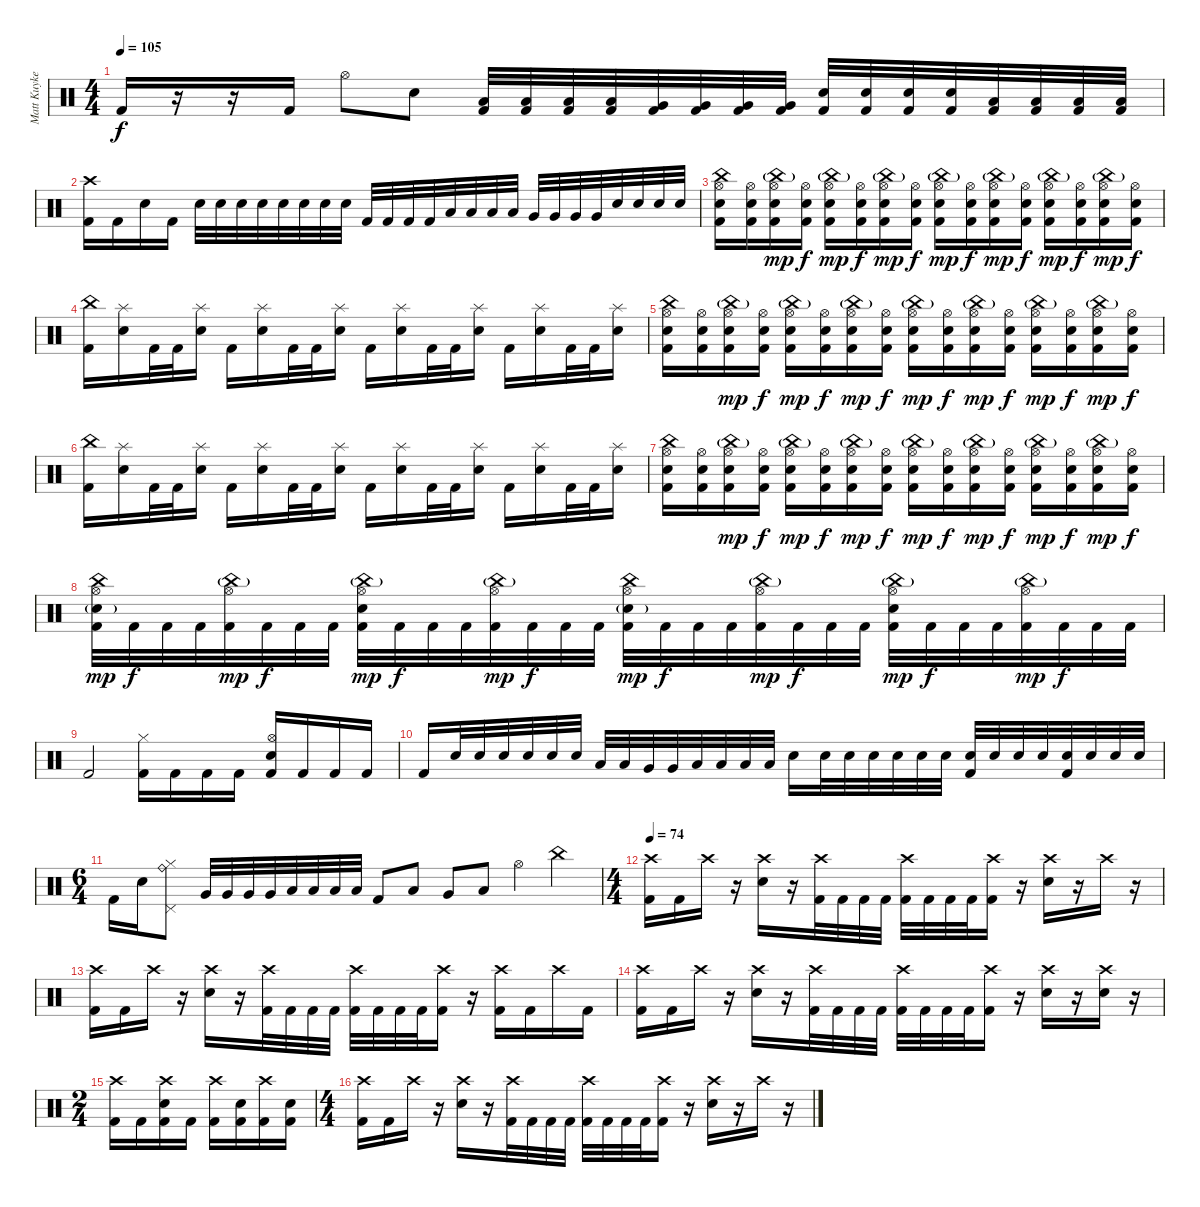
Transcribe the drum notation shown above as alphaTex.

\track ("Matt Kuykendall (Drums)" "Matt Kuyke") {instrument percussion}
\staff {score}
\articulation defaults
\ts (4 4)
\tempo 105
\clef neutral
\ks c "Kick (hit) 2".16{dy f}
r.16 r.16 "Kick (hit) 2".16 "Hi-Hat (open)".8 "Snare (hit) 2".8 ("Low Floor Tom (hit)" "Kick (hit) 2").32 ("Low Floor Tom (hit)" "Kick (hit) 2").32 ("Low Floor Tom (hit)" "Kick (hit) 2").32 ("Low Floor Tom (hit)" "Kick (hit) 2").32 ("Very Low Tom (hit)" "Kick (hit) 2").32 ("Very Low Tom (hit)" "Kick (hit) 2").32 ("Very Low Tom (hit)" "Kick (hit) 2").32 ("Very Low Tom (hit)" "Kick (hit) 2").32 ("Snare (hit) 2" "Kick (hit) 2").32 ("Snare (hit) 2" "Kick (hit) 2").32 ("Snare (hit) 2" "Kick (hit) 2").32 ("Snare (hit) 2" "Kick (hit) 2").32 ("Low Floor Tom (hit)" "Kick (hit) 2").32 ("Low Floor Tom (hit)" "Kick (hit) 2").32 ("Low Floor Tom (hit)" "Kick (hit) 2").32 ("Low Floor Tom (hit)" "Kick (hit) 2").32 |
("Crash high (hit)" "Kick (hit) 2").16 "Kick (hit) 2".16 "Snare (hit) 2".16 "Kick (hit) 2".16 "Snare (hit) 2".32 "Snare (hit) 2".32 "Snare (hit) 2".32 "Snare (hit) 2".32 "Snare (hit) 2".32 "Snare (hit) 2".32 "Snare (hit) 2".32 "Snare (hit) 2".32 "Kick (hit) 2".32 "Kick (hit) 2".32 "Kick (hit) 2".32 "Kick (hit) 2".32 "Low Floor Tom (hit)".32 "Low Floor Tom (hit)".32 "Low Floor Tom (hit)".32 "Low Floor Tom (hit)".32 "Very Low Tom (hit)".32 "Very Low Tom (hit)".32 "Very Low Tom (hit)".32 "Very Low Tom (hit)".32 "Snare (hit) 2".32 "Snare (hit) 2".32 "Snare (hit) 2".32 "Snare (hit) 2".32 |
("China (hit)" "Hi-Hat (open)" "Snare (hit) 2" "Kick (hit) 2").16 ("Hi-Hat (open)" "Snare (hit) 2" "Kick (hit) 2").16 ("China (hit)"{g} "Hi-Hat (open)" "Snare (hit) 2" "Kick (hit) 2").16{dy mp} ("Hi-Hat (open)" "Snare (hit) 2" "Kick (hit) 2").16{dy f} ("China (hit)"{g} "Hi-Hat (open)" "Snare (hit) 2" "Kick (hit) 2").16{dy mp} ("Hi-Hat (open)" "Snare (hit) 2" "Kick (hit) 2").16{dy f} ("China (hit)"{g} "Hi-Hat (open)" "Snare (hit) 2" "Kick (hit) 2").16{dy mp} ("Hi-Hat (open)" "Snare (hit) 2" "Kick (hit) 2").16{dy f} ("China (hit)"{g} "Hi-Hat (open)" "Snare (hit) 2" "Kick (hit) 2").16{dy mp} ("Hi-Hat (open)" "Snare (hit) 2" "Kick (hit) 2").16{dy f} ("China (hit)"{g} "Hi-Hat (open)" "Snare (hit) 2" "Kick (hit) 2").16{dy mp} ("Hi-Hat (open)" "Snare (hit) 2" "Kick (hit) 2").16{dy f} ("China (hit)"{g} "Hi-Hat (open)" "Snare (hit) 2" "Kick (hit) 2").16{dy mp} ("Hi-Hat (open)" "Snare (hit) 2" "Kick (hit) 2").16{dy f} ("China (hit)"{g} "Hi-Hat (open)" "Snare (hit) 2" "Kick (hit) 2").16{dy mp} ("Hi-Hat (open)" "Snare (hit) 2" "Kick (hit) 2").16{dy f} |
("China (hit)" "Kick (hit) 2").16 ("Splash (hit)" "Snare (hit) 2").16 "Kick (hit) 2".32 "Kick (hit) 2".32 ("Splash (hit)" "Snare (hit) 2").16 "Kick (hit) 2".16 ("Splash (hit)" "Snare (hit) 2").16 "Kick (hit) 2".32 "Kick (hit) 2".32 ("Splash (hit)" "Snare (hit) 2").16 "Kick (hit) 2".16 ("Splash (hit)" "Snare (hit) 2").16 "Kick (hit) 2".32 "Kick (hit) 2".32 ("Splash (hit)" "Snare (hit) 2").16 "Kick (hit) 2".16 ("Splash (hit)" "Snare (hit) 2").16 "Kick (hit) 2".32 "Kick (hit) 2".32 ("Splash (hit)" "Snare (hit) 2").16 |
("China (hit)" "Hi-Hat (open)" "Snare (hit) 2" "Kick (hit) 2").16 ("Hi-Hat (open)" "Snare (hit) 2" "Kick (hit) 2").16 ("China (hit)"{g} "Hi-Hat (open)" "Snare (hit) 2" "Kick (hit) 2").16{dy mp} ("Hi-Hat (open)" "Snare (hit) 2" "Kick (hit) 2").16{dy f} ("China (hit)"{g} "Hi-Hat (open)" "Snare (hit) 2" "Kick (hit) 2").16{dy mp} ("Hi-Hat (open)" "Snare (hit) 2" "Kick (hit) 2").16{dy f} ("China (hit)"{g} "Hi-Hat (open)" "Snare (hit) 2" "Kick (hit) 2").16{dy mp} ("Hi-Hat (open)" "Snare (hit) 2" "Kick (hit) 2").16{dy f} ("China (hit)"{g} "Hi-Hat (open)" "Snare (hit) 2" "Kick (hit) 2").16{dy mp} ("Hi-Hat (open)" "Snare (hit) 2" "Kick (hit) 2").16{dy f} ("China (hit)"{g} "Hi-Hat (open)" "Snare (hit) 2" "Kick (hit) 2").16{dy mp} ("Hi-Hat (open)" "Snare (hit) 2" "Kick (hit) 2").16{dy f} ("China (hit)"{g} "Hi-Hat (open)" "Snare (hit) 2" "Kick (hit) 2").16{dy mp} ("Hi-Hat (open)" "Snare (hit) 2" "Kick (hit) 2").16{dy f} ("China (hit)"{g} "Hi-Hat (open)" "Snare (hit) 2" "Kick (hit) 2").16{dy mp} ("Hi-Hat (open)" "Snare (hit) 2" "Kick (hit) 2").16{dy f} |
("China (hit)" "Kick (hit) 2").16 ("Splash (hit)" "Snare (hit) 2").16 "Kick (hit) 2".32 "Kick (hit) 2".32 ("Splash (hit)" "Snare (hit) 2").16 "Kick (hit) 2".16 ("Splash (hit)" "Snare (hit) 2").16 "Kick (hit) 2".32 "Kick (hit) 2".32 ("Splash (hit)" "Snare (hit) 2").16 "Kick (hit) 2".16 ("Splash (hit)" "Snare (hit) 2").16 "Kick (hit) 2".32 "Kick (hit) 2".32 ("Splash (hit)" "Snare (hit) 2").16 "Kick (hit) 2".16 ("Splash (hit)" "Snare (hit) 2").16 "Kick (hit) 2".32 "Kick (hit) 2".32 ("Splash (hit)" "Snare (hit) 2").16 |
("China (hit)" "Hi-Hat (open)" "Snare (hit) 2" "Kick (hit) 2").16 ("Hi-Hat (open)" "Snare (hit) 2" "Kick (hit) 2").16 ("China (hit)"{g} "Hi-Hat (open)" "Snare (hit) 2" "Kick (hit) 2").16{dy mp} ("Hi-Hat (open)" "Snare (hit) 2" "Kick (hit) 2").16{dy f} ("China (hit)"{g} "Hi-Hat (open)" "Snare (hit) 2" "Kick (hit) 2").16{dy mp} ("Hi-Hat (open)" "Snare (hit) 2" "Kick (hit) 2").16{dy f} ("China (hit)"{g} "Hi-Hat (open)" "Snare (hit) 2" "Kick (hit) 2").16{dy mp} ("Hi-Hat (open)" "Snare (hit) 2" "Kick (hit) 2").16{dy f} ("China (hit)"{g} "Hi-Hat (open)" "Snare (hit) 2" "Kick (hit) 2").16{dy mp} ("Hi-Hat (open)" "Snare (hit) 2" "Kick (hit) 2").16{dy f} ("China (hit)"{g} "Hi-Hat (open)" "Snare (hit) 2" "Kick (hit) 2").16{dy mp} ("Hi-Hat (open)" "Snare (hit) 2" "Kick (hit) 2").16{dy f} ("China (hit)"{g} "Hi-Hat (open)" "Snare (hit) 2" "Kick (hit) 2").16{dy mp} ("Hi-Hat (open)" "Snare (hit) 2" "Kick (hit) 2").16{dy f} ("China (hit)"{g} "Hi-Hat (open)" "Snare (hit) 2" "Kick (hit) 2").16{dy mp} ("Hi-Hat (open)" "Snare (hit) 2" "Kick (hit) 2").16{dy f} |
("China (hit)" "Hi-Hat (open)" "Snare (hit) 2"{g} "Kick (hit) 2").32{dy mp} "Kick (hit) 2".32{dy f} "Kick (hit) 2".32 "Kick (hit) 2".32 ("China (hit)"{g} "Hi-Hat (open)" "Kick (hit) 2").32{dy mp} "Kick (hit) 2".32{dy f} "Kick (hit) 2".32 "Kick (hit) 2".32 ("China (hit)"{g} "Hi-Hat (open)" "Snare (hit) 2" "Kick (hit) 2").32{dy mp} "Kick (hit) 2".32{dy f} "Kick (hit) 2".32 "Kick (hit) 2".32 ("China (hit)"{g} "Hi-Hat (open)" "Kick (hit) 2").32{dy mp} "Kick (hit) 2".32{dy f} "Kick (hit) 2".32 "Kick (hit) 2".32 ("China (hit)" "Hi-Hat (open)" "Snare (hit) 2"{g} "Kick (hit) 2").32{dy mp} "Kick (hit) 2".32{dy f} "Kick (hit) 2".32 "Kick (hit) 2".32 ("China (hit)"{g} "Hi-Hat (open)" "Kick (hit) 2").32{dy mp} "Kick (hit) 2".32{dy f} "Kick (hit) 2".32 "Kick (hit) 2".32 ("China (hit)"{g} "Hi-Hat (open)" "Snare (hit) 2" "Kick (hit) 2").32{dy mp} "Kick (hit) 2".32{dy f} "Kick (hit) 2".32 "Kick (hit) 2".32 ("China (hit)"{g} "Hi-Hat (open)" "Kick (hit) 2").32{dy mp} "Kick (hit) 2".32{dy f} "Kick (hit) 2".32 "Kick (hit) 2".32 |
"Kick (hit) 2".2 ("Hi-Hat (closed)" "Kick (hit) 2").16 "Kick (hit) 2".16 "Kick (hit) 2".16 "Kick (hit) 2".16 ("Hi-Hat (open)" "Snare (hit) 2" "Kick (hit) 2").16 "Kick (hit) 2".16 "Kick (hit) 2".16 "Kick (hit) 2".16 |
"Kick (hit) 2".16 "Snare (hit) 2".32 "Snare (hit) 2".32 "Snare (hit) 2".32 "Snare (hit) 2".32 "Snare (hit) 2".32 "Snare (hit) 2".32 "Low Floor Tom (hit)".32 "Low Floor Tom (hit)".32 "Very Low Tom (hit)".32 "Very Low Tom (hit)".32 "Low Floor Tom (hit)".32 "Low Floor Tom (hit)".32 "Low Floor Tom (hit)".32 "Low Floor Tom (hit)".32 "Snare (hit) 2".16 "Snare (hit) 2".32 "Snare (hit) 2".32 "Snare (hit) 2".32 "Snare (hit) 2".32 "Snare (hit) 2".32 "Snare (hit) 2".32 ("Snare (hit) 2" "Kick (hit) 2").32 "Snare (hit) 2".32 "Snare (hit) 2".32 "Snare (hit) 2".32 ("Snare (hit) 2" "Kick (hit) 2").32 "Snare (hit) 2".32 "Snare (hit) 2".32 "Snare (hit) 2".32 |
\ts (6 4)
"Kick (hit) 2".16 "Snare (hit) 2".16 ("Ride (bell)" "Hi-Hat (closed)" "Pedal Hi-Hat (hit)").8 "Very Low Tom (hit)".32 "Very Low Tom (hit)".32 "Very Low Tom (hit)".32 "Very Low Tom (hit)".32 "Low Floor Tom (hit)".32 "Low Floor Tom (hit)".32 "Low Floor Tom (hit)".32 "Low Floor Tom (hit)".32 "Kick (hit) 2".8 "Low Floor Tom (hit)".8 "Very Low Tom (hit)".8 "Low Floor Tom (hit)".8 "Hi-Hat (open)".4 "China (hit)".4 |
\ts (4 4)
\tempo 74
("Crash high (hit)" "Kick (hit) 2").16 "Kick (hit) 2".16 "Crash high (hit)".16 r.16 ("Crash high (hit)" "Snare (hit) 2").16 r.16 ("Crash high (hit)" "Kick (hit) 2").32 "Kick (hit) 2".32 "Kick (hit) 2".32 "Kick (hit) 2".32 ("Crash high (hit)" "Kick (hit) 2").32 "Kick (hit) 2".32 "Kick (hit) 2".32 "Kick (hit) 2".32 ("Crash high (hit)" "Kick (hit) 2").16 r.16 ("Crash high (hit)" "Snare (hit) 2").16 r.16 "Crash high (hit)".16 r.16 |
("Crash high (hit)" "Kick (hit) 2").16 "Kick (hit) 2".16 "Crash high (hit)".16 r.16 ("Crash high (hit)" "Snare (hit) 2").16 r.16 ("Crash high (hit)" "Kick (hit) 2").32 "Kick (hit) 2".32 "Kick (hit) 2".32 "Kick (hit) 2".32 ("Crash high (hit)" "Kick (hit) 2").32 "Kick (hit) 2".32 "Kick (hit) 2".32 "Kick (hit) 2".32 ("Crash high (hit)" "Kick (hit) 2").16 r.16 ("Crash high (hit)" "Kick (hit) 2").16 "Kick (hit) 2".16 "Crash high (hit)".16 "Kick (hit) 2".16 |
("Crash high (hit)" "Kick (hit) 2").16 "Kick (hit) 2".16 "Crash high (hit)".16 r.16 ("Crash high (hit)" "Snare (hit) 2").16 r.16 ("Crash high (hit)" "Kick (hit) 2").32 "Kick (hit) 2".32 "Kick (hit) 2".32 "Kick (hit) 2".32 ("Crash high (hit)" "Kick (hit) 2").32 "Kick (hit) 2".32 "Kick (hit) 2".32 "Kick (hit) 2".32 ("Crash high (hit)" "Kick (hit) 2").16 r.16 ("Crash high (hit)" "Snare (hit) 2").16 r.16 ("Crash high (hit)" "Snare (hit) 2").16 r.16 |
\ts (2 4)
("Crash high (hit)" "Kick (hit) 2").16 "Kick (hit) 2".16 ("Crash high (hit)" "Snare (hit) 2" "Kick (hit) 2").16 "Kick (hit) 2".16 ("Crash high (hit)" "Kick (hit) 2").16 ("Snare (hit) 2" "Kick (hit) 2").16 ("Crash high (hit)" "Kick (hit) 2").16 ("Snare (hit) 2" "Kick (hit) 2").16 |
\ts (4 4)
("Crash high (hit)" "Kick (hit) 2").16 "Kick (hit) 2".16 "Crash high (hit)".16 r.16 ("Crash high (hit)" "Snare (hit) 2").16 r.16 ("Crash high (hit)" "Kick (hit) 2").32 "Kick (hit) 2".32 "Kick (hit) 2".32 "Kick (hit) 2".32 ("Crash high (hit)" "Kick (hit) 2").32 "Kick (hit) 2".32 "Kick (hit) 2".32 "Kick (hit) 2".32 ("Crash high (hit)" "Kick (hit) 2").16 r.16 ("Crash high (hit)" "Snare (hit) 2").16 r.16 "Crash high (hit)".16 r.16
